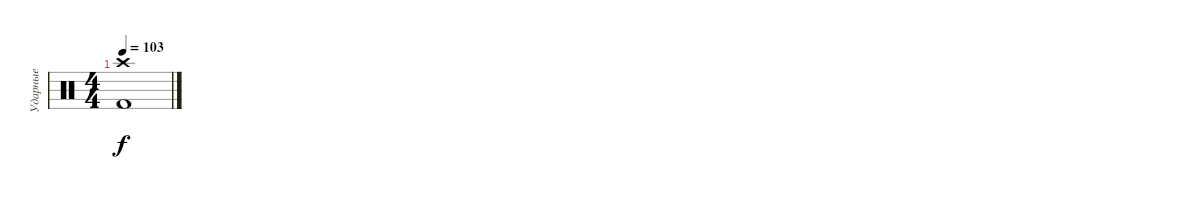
\track ("Ударные" "Ударные") {instrument percussion}
\staff {score}
\articulation defaults
\ts (4 4)
\tempo 103
\clef neutral
\ks c
("Kick (hit) 2" "Crash high (hit)").1{dy f}
